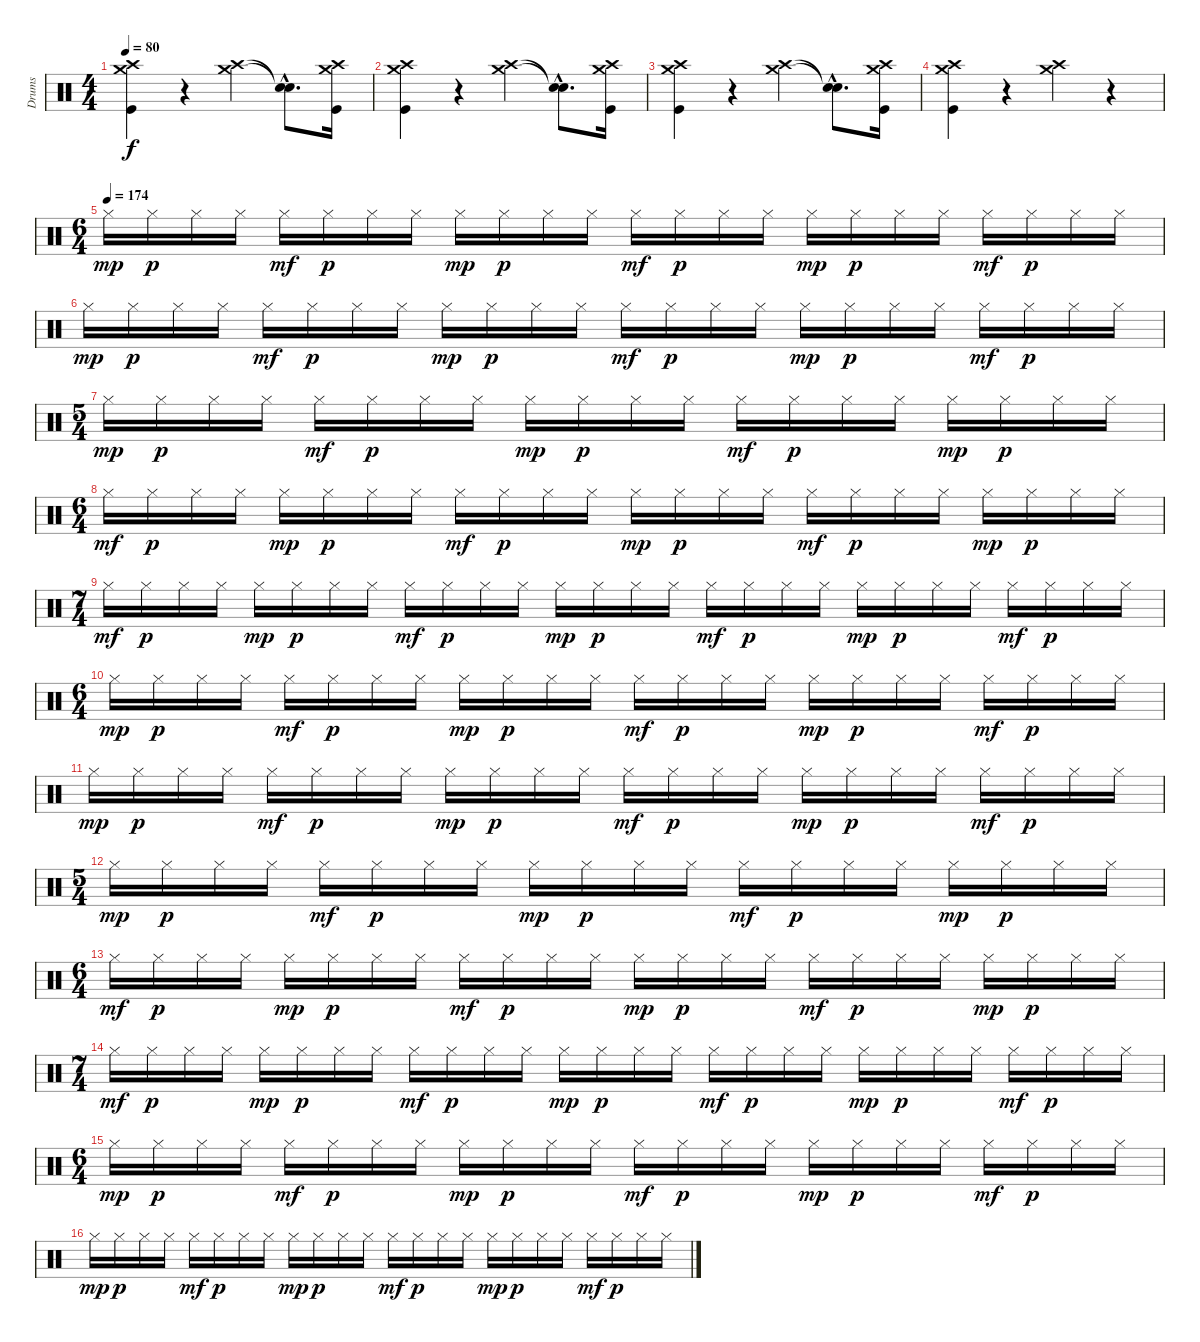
\track ("Drums" "Drums") {instrument percussion}
\staff {score}
\articulation defaults
\ts (4 4)
\tempo 80
\clef neutral
\ks c
("Crash high (hit)" "Crash medium (hit)" "Kick (hit)").4{dy f} r.4{volume 0} ("Crash high (hit)" "Crash medium (hit)").4{volume 14} ("Snare (hit)"{hac t} "Snare (hit)"{hac t}).8{d} ("Crash high (hit)" "Crash medium (hit)" "Kick (hit)").16 |
("Crash high (hit)" "Crash medium (hit)" "Kick (hit)").4 r.4{volume 0} ("Crash high (hit)" "Crash medium (hit)").4{volume 14} ("Snare (hit)"{hac t} "Snare (hit)"{hac t}).8{d} ("Crash high (hit)" "Crash medium (hit)" "Kick (hit)").16 |
("Crash high (hit)" "Crash medium (hit)" "Kick (hit)").4 r.4{volume 0} ("Crash high (hit)" "Crash medium (hit)").4{volume 14} ("Snare (hit)"{hac t} "Snare (hit)"{hac t}).8{d} ("Crash high (hit)" "Crash medium (hit)" "Kick (hit)").16 |
("Crash high (hit)" "Crash medium (hit)" "Kick (hit)").4 r.4{volume 0} ("Crash high (hit)" "Crash medium (hit)").4{volume 14} r.4 |
\ts (6 4)
\tempo (174)
"Hi-Hat (closed)".16{dy mp} "Hi-Hat (closed)".16{dy p} "Hi-Hat (closed)".16 "Hi-Hat (closed)".16 "Hi-Hat (closed)".16{dy mf} "Hi-Hat (closed)".16{dy p} "Hi-Hat (closed)".16 "Hi-Hat (closed)".16 "Hi-Hat (closed)".16{dy mp} "Hi-Hat (closed)".16{dy p} "Hi-Hat (closed)".16 "Hi-Hat (closed)".16 "Hi-Hat (closed)".16{dy mf} "Hi-Hat (closed)".16{dy p} "Hi-Hat (closed)".16 "Hi-Hat (closed)".16 "Hi-Hat (closed)".16{dy mp} "Hi-Hat (closed)".16{dy p} "Hi-Hat (closed)".16 "Hi-Hat (closed)".16 "Hi-Hat (closed)".16{dy mf} "Hi-Hat (closed)".16{dy p} "Hi-Hat (closed)".16 "Hi-Hat (closed)".16 |
"Hi-Hat (closed)".16{dy mp} "Hi-Hat (closed)".16{dy p} "Hi-Hat (closed)".16 "Hi-Hat (closed)".16 "Hi-Hat (closed)".16{dy mf} "Hi-Hat (closed)".16{dy p} "Hi-Hat (closed)".16 "Hi-Hat (closed)".16 "Hi-Hat (closed)".16{dy mp} "Hi-Hat (closed)".16{dy p} "Hi-Hat (closed)".16 "Hi-Hat (closed)".16 "Hi-Hat (closed)".16{dy mf} "Hi-Hat (closed)".16{dy p} "Hi-Hat (closed)".16 "Hi-Hat (closed)".16 "Hi-Hat (closed)".16{dy mp} "Hi-Hat (closed)".16{dy p} "Hi-Hat (closed)".16 "Hi-Hat (closed)".16 "Hi-Hat (closed)".16{dy mf} "Hi-Hat (closed)".16{dy p} "Hi-Hat (closed)".16 "Hi-Hat (closed)".16 |
\ts (5 4)
"Hi-Hat (closed)".16{dy mp} "Hi-Hat (closed)".16{dy p} "Hi-Hat (closed)".16 "Hi-Hat (closed)".16 "Hi-Hat (closed)".16{dy mf} "Hi-Hat (closed)".16{dy p} "Hi-Hat (closed)".16 "Hi-Hat (closed)".16 "Hi-Hat (closed)".16{dy mp} "Hi-Hat (closed)".16{dy p} "Hi-Hat (closed)".16 "Hi-Hat (closed)".16 "Hi-Hat (closed)".16{dy mf} "Hi-Hat (closed)".16{dy p} "Hi-Hat (closed)".16 "Hi-Hat (closed)".16 "Hi-Hat (closed)".16{dy mp} "Hi-Hat (closed)".16{dy p} "Hi-Hat (closed)".16 "Hi-Hat (closed)".16 |
\ts (6 4)
"Hi-Hat (closed)".16{dy mf} "Hi-Hat (closed)".16{dy p} "Hi-Hat (closed)".16 "Hi-Hat (closed)".16 "Hi-Hat (closed)".16{dy mp} "Hi-Hat (closed)".16{dy p} "Hi-Hat (closed)".16 "Hi-Hat (closed)".16 "Hi-Hat (closed)".16{dy mf} "Hi-Hat (closed)".16{dy p} "Hi-Hat (closed)".16 "Hi-Hat (closed)".16 "Hi-Hat (closed)".16{dy mp} "Hi-Hat (closed)".16{dy p} "Hi-Hat (closed)".16 "Hi-Hat (closed)".16 "Hi-Hat (closed)".16{dy mf} "Hi-Hat (closed)".16{dy p} "Hi-Hat (closed)".16 "Hi-Hat (closed)".16 "Hi-Hat (closed)".16{dy mp} "Hi-Hat (closed)".16{dy p} "Hi-Hat (closed)".16 "Hi-Hat (closed)".16 |
\ts (7 4)
"Hi-Hat (closed)".16{dy mf} "Hi-Hat (closed)".16{dy p} "Hi-Hat (closed)".16 "Hi-Hat (closed)".16 "Hi-Hat (closed)".16{dy mp} "Hi-Hat (closed)".16{dy p} "Hi-Hat (closed)".16 "Hi-Hat (closed)".16 "Hi-Hat (closed)".16{dy mf} "Hi-Hat (closed)".16{dy p} "Hi-Hat (closed)".16 "Hi-Hat (closed)".16 "Hi-Hat (closed)".16{dy mp} "Hi-Hat (closed)".16{dy p} "Hi-Hat (closed)".16 "Hi-Hat (closed)".16 "Hi-Hat (closed)".16{dy mf} "Hi-Hat (closed)".16{dy p} "Hi-Hat (closed)".16 "Hi-Hat (closed)".16 "Hi-Hat (closed)".16{dy mp} "Hi-Hat (closed)".16{dy p} "Hi-Hat (closed)".16 "Hi-Hat (closed)".16 "Hi-Hat (closed)".16{dy mf} "Hi-Hat (closed)".16{dy p} "Hi-Hat (closed)".16 "Hi-Hat (closed)".16 |
\ts (6 4)
"Hi-Hat (closed)".16{dy mp} "Hi-Hat (closed)".16{dy p} "Hi-Hat (closed)".16 "Hi-Hat (closed)".16 "Hi-Hat (closed)".16{dy mf} "Hi-Hat (closed)".16{dy p} "Hi-Hat (closed)".16 "Hi-Hat (closed)".16 "Hi-Hat (closed)".16{dy mp} "Hi-Hat (closed)".16{dy p} "Hi-Hat (closed)".16 "Hi-Hat (closed)".16 "Hi-Hat (closed)".16{dy mf} "Hi-Hat (closed)".16{dy p} "Hi-Hat (closed)".16 "Hi-Hat (closed)".16 "Hi-Hat (closed)".16{dy mp} "Hi-Hat (closed)".16{dy p} "Hi-Hat (closed)".16 "Hi-Hat (closed)".16 "Hi-Hat (closed)".16{dy mf} "Hi-Hat (closed)".16{dy p} "Hi-Hat (closed)".16 "Hi-Hat (closed)".16 |
"Hi-Hat (closed)".16{dy mp} "Hi-Hat (closed)".16{dy p} "Hi-Hat (closed)".16 "Hi-Hat (closed)".16 "Hi-Hat (closed)".16{dy mf} "Hi-Hat (closed)".16{dy p} "Hi-Hat (closed)".16 "Hi-Hat (closed)".16 "Hi-Hat (closed)".16{dy mp} "Hi-Hat (closed)".16{dy p} "Hi-Hat (closed)".16 "Hi-Hat (closed)".16 "Hi-Hat (closed)".16{dy mf} "Hi-Hat (closed)".16{dy p} "Hi-Hat (closed)".16 "Hi-Hat (closed)".16 "Hi-Hat (closed)".16{dy mp} "Hi-Hat (closed)".16{dy p} "Hi-Hat (closed)".16 "Hi-Hat (closed)".16 "Hi-Hat (closed)".16{dy mf} "Hi-Hat (closed)".16{dy p} "Hi-Hat (closed)".16 "Hi-Hat (closed)".16 |
\ts (5 4)
"Hi-Hat (closed)".16{dy mp} "Hi-Hat (closed)".16{dy p} "Hi-Hat (closed)".16 "Hi-Hat (closed)".16 "Hi-Hat (closed)".16{dy mf} "Hi-Hat (closed)".16{dy p} "Hi-Hat (closed)".16 "Hi-Hat (closed)".16 "Hi-Hat (closed)".16{dy mp} "Hi-Hat (closed)".16{dy p} "Hi-Hat (closed)".16 "Hi-Hat (closed)".16 "Hi-Hat (closed)".16{dy mf} "Hi-Hat (closed)".16{dy p} "Hi-Hat (closed)".16 "Hi-Hat (closed)".16 "Hi-Hat (closed)".16{dy mp} "Hi-Hat (closed)".16{dy p} "Hi-Hat (closed)".16 "Hi-Hat (closed)".16 |
\ts (6 4)
"Hi-Hat (closed)".16{dy mf} "Hi-Hat (closed)".16{dy p} "Hi-Hat (closed)".16 "Hi-Hat (closed)".16 "Hi-Hat (closed)".16{dy mp} "Hi-Hat (closed)".16{dy p} "Hi-Hat (closed)".16 "Hi-Hat (closed)".16 "Hi-Hat (closed)".16{dy mf} "Hi-Hat (closed)".16{dy p} "Hi-Hat (closed)".16 "Hi-Hat (closed)".16 "Hi-Hat (closed)".16{dy mp} "Hi-Hat (closed)".16{dy p} "Hi-Hat (closed)".16 "Hi-Hat (closed)".16 "Hi-Hat (closed)".16{dy mf} "Hi-Hat (closed)".16{dy p} "Hi-Hat (closed)".16 "Hi-Hat (closed)".16 "Hi-Hat (closed)".16{dy mp} "Hi-Hat (closed)".16{dy p} "Hi-Hat (closed)".16 "Hi-Hat (closed)".16 |
\ts (7 4)
"Hi-Hat (closed)".16{dy mf} "Hi-Hat (closed)".16{dy p} "Hi-Hat (closed)".16 "Hi-Hat (closed)".16 "Hi-Hat (closed)".16{dy mp} "Hi-Hat (closed)".16{dy p} "Hi-Hat (closed)".16 "Hi-Hat (closed)".16 "Hi-Hat (closed)".16{dy mf} "Hi-Hat (closed)".16{dy p} "Hi-Hat (closed)".16 "Hi-Hat (closed)".16 "Hi-Hat (closed)".16{dy mp} "Hi-Hat (closed)".16{dy p} "Hi-Hat (closed)".16 "Hi-Hat (closed)".16 "Hi-Hat (closed)".16{dy mf} "Hi-Hat (closed)".16{dy p} "Hi-Hat (closed)".16 "Hi-Hat (closed)".16 "Hi-Hat (closed)".16{dy mp} "Hi-Hat (closed)".16{dy p} "Hi-Hat (closed)".16 "Hi-Hat (closed)".16 "Hi-Hat (closed)".16{dy mf} "Hi-Hat (closed)".16{dy p} "Hi-Hat (closed)".16 "Hi-Hat (closed)".16 |
\ts (6 4)
"Hi-Hat (closed)".16{dy mp} "Hi-Hat (closed)".16{dy p} "Hi-Hat (closed)".16 "Hi-Hat (closed)".16 "Hi-Hat (closed)".16{dy mf} "Hi-Hat (closed)".16{dy p} "Hi-Hat (closed)".16 "Hi-Hat (closed)".16 "Hi-Hat (closed)".16{dy mp} "Hi-Hat (closed)".16{dy p} "Hi-Hat (closed)".16 "Hi-Hat (closed)".16 "Hi-Hat (closed)".16{dy mf} "Hi-Hat (closed)".16{dy p} "Hi-Hat (closed)".16 "Hi-Hat (closed)".16 "Hi-Hat (closed)".16{dy mp} "Hi-Hat (closed)".16{dy p} "Hi-Hat (closed)".16 "Hi-Hat (closed)".16 "Hi-Hat (closed)".16{dy mf} "Hi-Hat (closed)".16{dy p} "Hi-Hat (closed)".16 "Hi-Hat (closed)".16 |
"Hi-Hat (closed)".16{dy mp} "Hi-Hat (closed)".16{dy p} "Hi-Hat (closed)".16 "Hi-Hat (closed)".16 "Hi-Hat (closed)".16{dy mf} "Hi-Hat (closed)".16{dy p} "Hi-Hat (closed)".16 "Hi-Hat (closed)".16 "Hi-Hat (closed)".16{dy mp} "Hi-Hat (closed)".16{dy p} "Hi-Hat (closed)".16 "Hi-Hat (closed)".16 "Hi-Hat (closed)".16{dy mf} "Hi-Hat (closed)".16{dy p} "Hi-Hat (closed)".16 "Hi-Hat (closed)".16 "Hi-Hat (closed)".16{dy mp} "Hi-Hat (closed)".16{dy p} "Hi-Hat (closed)".16 "Hi-Hat (closed)".16 "Hi-Hat (closed)".16{dy mf} "Hi-Hat (closed)".16{dy p} "Hi-Hat (closed)".16 "Hi-Hat (closed)".16
